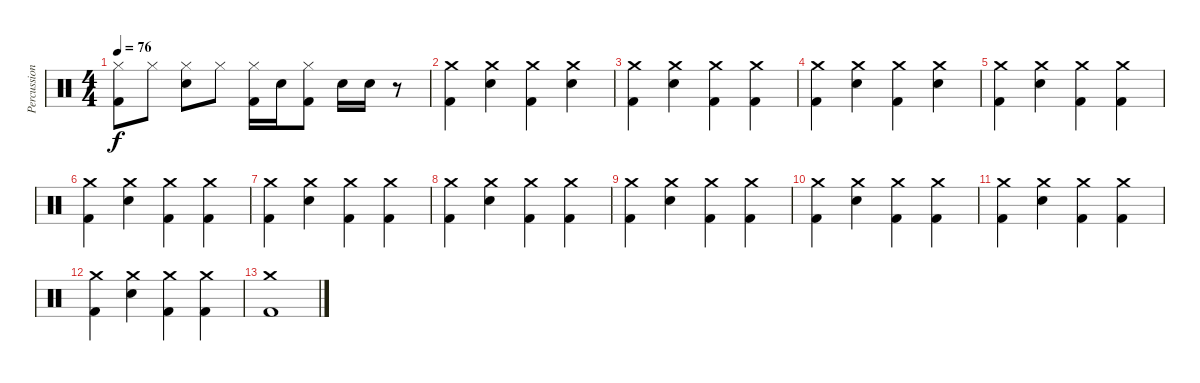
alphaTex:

\track ("Percussion" "Percussion") {instrument percussion}
\staff {score}
\articulation defaults
\ts (4 4)
\tempo 76
\clef neutral
\ks c
("Hi-Hat (closed)" "Kick (hit) 2").8{dy f} "Hi-Hat (closed)".8 ("Hi-Hat (closed)" "Snare (hit) 2").8 "Hi-Hat (closed)".8 ("Hi-Hat (closed)" "Kick (hit) 2").16 "Snare (hit) 2".16 ("Hi-Hat (closed)" "Kick (hit) 2").8 "Snare (hit) 2".16 "Snare (hit) 2".16 r.8 |
("Crash medium (hit)" "Kick (hit) 2").4 ("Crash medium (hit)" "Snare (hit) 2").4 ("Crash medium (hit)" "Kick (hit) 2").4 ("Crash medium (hit)" "Snare (hit) 2").4 |
("Crash medium (hit)" "Kick (hit) 2").4 ("Crash medium (hit)" "Snare (hit) 2").4 ("Crash medium (hit)" "Kick (hit) 2").4 ("Crash medium (hit)" "Kick (hit) 2").4 |
("Crash medium (hit)" "Kick (hit) 2").4 ("Crash medium (hit)" "Snare (hit) 2").4 ("Crash medium (hit)" "Kick (hit) 2").4 ("Crash medium (hit)" "Snare (hit) 2").4 |
("Crash medium (hit)" "Kick (hit) 2").4 ("Crash medium (hit)" "Snare (hit) 2").4 ("Crash medium (hit)" "Kick (hit) 2").4 ("Crash medium (hit)" "Kick (hit) 2").4 |
("Crash medium (hit)" "Kick (hit) 2").4 ("Crash medium (hit)" "Snare (hit) 2").4 ("Crash medium (hit)" "Kick (hit) 2").4 ("Crash medium (hit)" "Kick (hit) 2").4 |
("Crash medium (hit)" "Kick (hit) 2").4 ("Crash medium (hit)" "Snare (hit) 2").4 ("Crash medium (hit)" "Kick (hit) 2").4 ("Crash medium (hit)" "Kick (hit) 2").4 |
("Crash medium (hit)" "Kick (hit) 2").4 ("Crash medium (hit)" "Snare (hit) 2").4 ("Crash medium (hit)" "Kick (hit) 2").4 ("Crash medium (hit)" "Kick (hit) 2").4 |
("Crash medium (hit)" "Kick (hit) 2").4 ("Crash medium (hit)" "Snare (hit) 2").4 ("Crash medium (hit)" "Kick (hit) 2").4 ("Crash medium (hit)" "Kick (hit) 2").4 |
("Crash medium (hit)" "Kick (hit) 2").4 ("Crash medium (hit)" "Snare (hit) 2").4 ("Crash medium (hit)" "Kick (hit) 2").4 ("Crash medium (hit)" "Kick (hit) 2").4 |
("Crash medium (hit)" "Kick (hit) 2").4 ("Crash medium (hit)" "Snare (hit) 2").4 ("Crash medium (hit)" "Kick (hit) 2").4 ("Crash medium (hit)" "Kick (hit) 2").4 |
("Crash medium (hit)" "Kick (hit) 2").4 ("Crash medium (hit)" "Snare (hit) 2").4 ("Crash medium (hit)" "Kick (hit) 2").4 ("Crash medium (hit)" "Kick (hit) 2").4 |
("Crash medium (hit)" "Kick (hit) 2").1
